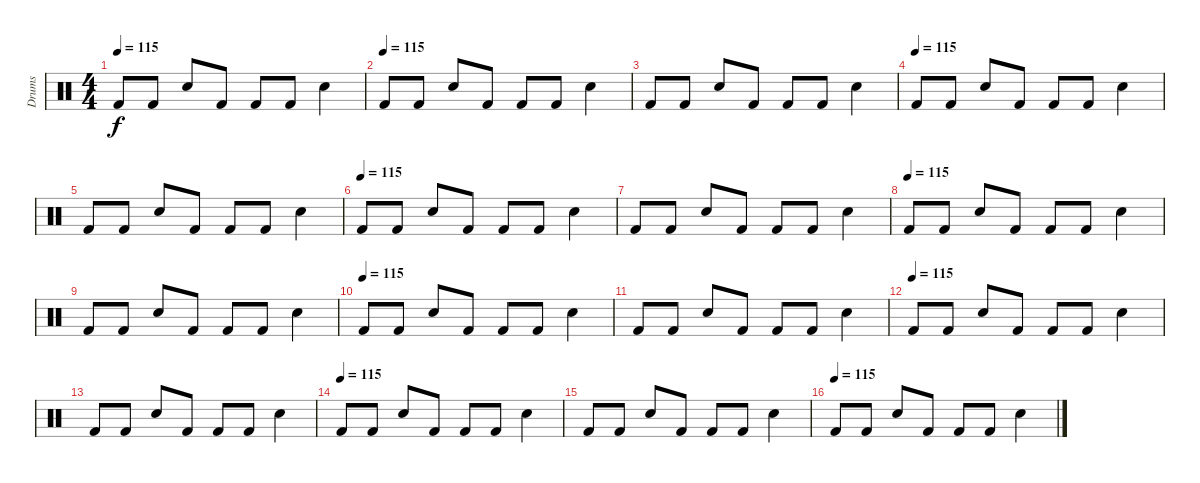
\track ("Drums" "Drums") {instrument percussion}
\staff {score}
\articulation defaults
\ts (4 4)
\tempo 115
\clef neutral
\ks c "Kick (hit) 2".8{dy f} "Kick (hit) 2".8 "Snare (hit) 2".8 "Kick (hit) 2".8 "Kick (hit) 2".8 "Kick (hit) 2".8 "Snare (hit) 2".4
|
\tempo (115)
"Kick (hit) 2".8 "Kick (hit) 2".8 "Snare (hit) 2".8 "Kick (hit) 2".8 "Kick (hit) 2".8 "Kick (hit) 2".8 "Snare (hit) 2".4 |
"Kick (hit) 2".8 "Kick (hit) 2".8 "Snare (hit) 2".8 "Kick (hit) 2".8 "Kick (hit) 2".8 "Kick (hit) 2".8 "Snare (hit) 2".4 |
\tempo (115)
"Kick (hit) 2".8 "Kick (hit) 2".8 "Snare (hit) 2".8 "Kick (hit) 2".8 "Kick (hit) 2".8 "Kick (hit) 2".8 "Snare (hit) 2".4 |
"Kick (hit) 2".8 "Kick (hit) 2".8 "Snare (hit) 2".8 "Kick (hit) 2".8 "Kick (hit) 2".8 "Kick (hit) 2".8 "Snare (hit) 2".4 |
\tempo (115)
"Kick (hit) 2".8 "Kick (hit) 2".8 "Snare (hit) 2".8 "Kick (hit) 2".8 "Kick (hit) 2".8 "Kick (hit) 2".8 "Snare (hit) 2".4 |
"Kick (hit) 2".8 "Kick (hit) 2".8 "Snare (hit) 2".8 "Kick (hit) 2".8 "Kick (hit) 2".8 "Kick (hit) 2".8 "Snare (hit) 2".4 |
\tempo (115)
"Kick (hit) 2".8 "Kick (hit) 2".8 "Snare (hit) 2".8 "Kick (hit) 2".8 "Kick (hit) 2".8 "Kick (hit) 2".8 "Snare (hit) 2".4 |
"Kick (hit) 2".8 "Kick (hit) 2".8 "Snare (hit) 2".8 "Kick (hit) 2".8 "Kick (hit) 2".8 "Kick (hit) 2".8 "Snare (hit) 2".4 |
\tempo (115)
"Kick (hit) 2".8{volume 10} "Kick (hit) 2".8 "Snare (hit) 2".8 "Kick (hit) 2".8 "Kick (hit) 2".8 "Kick (hit) 2".8 "Snare (hit) 2".4 |
"Kick (hit) 2".8 "Kick (hit) 2".8 "Snare (hit) 2".8 "Kick (hit) 2".8 "Kick (hit) 2".8 "Kick (hit) 2".8 "Snare (hit) 2".4 |
\tempo (115)
"Kick (hit) 2".8{volume 10} "Kick (hit) 2".8 "Snare (hit) 2".8 "Kick (hit) 2".8 "Kick (hit) 2".8 "Kick (hit) 2".8 "Snare (hit) 2".4 |
"Kick (hit) 2".8 "Kick (hit) 2".8 "Snare (hit) 2".8 "Kick (hit) 2".8 "Kick (hit) 2".8 "Kick (hit) 2".8 "Snare (hit) 2".4 |
\tempo (115)
"Kick (hit) 2".8{volume 10} "Kick (hit) 2".8 "Snare (hit) 2".8 "Kick (hit) 2".8 "Kick (hit) 2".8 "Kick (hit) 2".8 "Snare (hit) 2".4 |
"Kick (hit) 2".8 "Kick (hit) 2".8 "Snare (hit) 2".8 "Kick (hit) 2".8 "Kick (hit) 2".8 "Kick (hit) 2".8 "Snare (hit) 2".4 |
\tempo (115)
"Kick (hit) 2".8{volume 10} "Kick (hit) 2".8 "Snare (hit) 2".8 "Kick (hit) 2".8 "Kick (hit) 2".8 "Kick (hit) 2".8 "Snare (hit) 2".4
